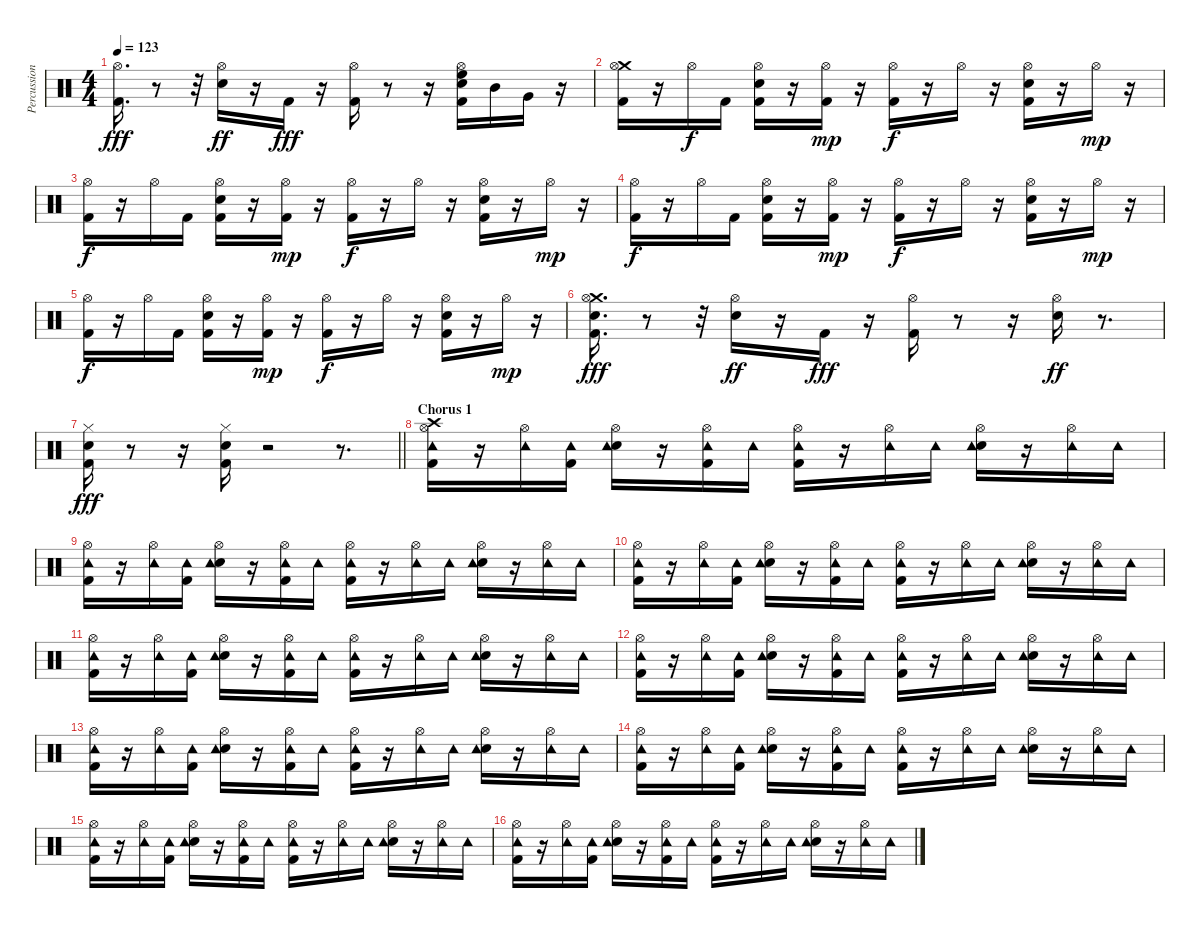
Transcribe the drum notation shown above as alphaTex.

\track ("Percussion: Liberty D'Vitto" "Percussion") {instrument percussion}
\staff {score}
\articulation defaults
\ts (4 4)
\tempo 123
\clef neutral
\ks c
("Kick (hit) 2" "Hi-Hat (open)").16{d dy fff} r.8 r.32 ("Snare (hit) 2" "Hi-Hat (open)").16{dy ff} r.16 "Kick (hit) 2".16{dy fff} r.16 ("Kick (hit) 2" "Hi-Hat (open)").16 r.8 r.16 ("Hi-Hat (open)" "Snare (hit) 2" "High Floor Tom (hit)" "Kick (hit) 2").16 "Mid Tom (hit)".16 "Very Low Tom (hit)".16 r.16 |
("Crash medium (hit)" "Hi-Hat (open)" "Kick (hit) 2").16 r.16 "Hi-Hat (open)".16{dy f} "Kick (hit) 2".16 ("Hi-Hat (open)" "Snare (hit) 2" "Kick (hit) 2").16 r.16 ("Hi-Hat (open)" "Kick (hit) 2").16{dy mp} r.16 ("Hi-Hat (open)" "Kick (hit) 2").16{dy f} r.16 "Hi-Hat (open)".16 r.16 ("Hi-Hat (open)" "Snare (hit) 2" "Kick (hit) 2").16 r.16 "Hi-Hat (open)".16{dy mp} r.16 |
("Hi-Hat (open)" "Kick (hit) 2").16{dy f} r.16 "Hi-Hat (open)".16 "Kick (hit) 2".16 ("Hi-Hat (open)" "Snare (hit) 2" "Kick (hit) 2").16 r.16 ("Hi-Hat (open)" "Kick (hit) 2").16{dy mp} r.16 ("Hi-Hat (open)" "Kick (hit) 2").16{dy f} r.16 "Hi-Hat (open)".16 r.16 ("Hi-Hat (open)" "Snare (hit) 2" "Kick (hit) 2").16 r.16 "Hi-Hat (open)".16{dy mp} r.16 |
("Hi-Hat (open)" "Kick (hit) 2").16{dy f} r.16 "Hi-Hat (open)".16 "Kick (hit) 2".16 ("Hi-Hat (open)" "Snare (hit) 2" "Kick (hit) 2").16 r.16 ("Hi-Hat (open)" "Kick (hit) 2").16{dy mp} r.16 ("Hi-Hat (open)" "Kick (hit) 2").16{dy f} r.16 "Hi-Hat (open)".16 r.16 ("Hi-Hat (open)" "Snare (hit) 2" "Kick (hit) 2").16 r.16 "Hi-Hat (open)".16{dy mp} r.16 |
("Hi-Hat (open)" "Kick (hit) 2").16{dy f} r.16 "Hi-Hat (open)".16 "Kick (hit) 2".16 ("Hi-Hat (open)" "Snare (hit) 2" "Kick (hit) 2").16 r.16 ("Hi-Hat (open)" "Kick (hit) 2").16{dy mp} r.16 ("Hi-Hat (open)" "Kick (hit) 2").16{dy f} r.16 "Hi-Hat (open)".16 r.16 ("Hi-Hat (open)" "Snare (hit) 2" "Kick (hit) 2").16 r.16 "Hi-Hat (open)".16{dy mp} r.16 |
("Crash medium (hit)" "Hi-Hat (open)" "Snare (hit) 2" "Kick (hit) 2").16{d dy fff} r.8 r.32 ("Snare (hit) 2" "Hi-Hat (open)").16{dy ff} r.16 "Kick (hit) 2".16{dy fff} r.16 ("Kick (hit) 2" "Hi-Hat (open)").16 r.8 r.16 ("Snare (hit) 2" "Hi-Hat (open)").16{dy ff} r.8{d} |
\barLineRight lightlight
("Hi-Hat (closed)" "Snare (hit) 2" "Kick (hit) 2").16{dy fff} r.8 r.16 ("Hi-Hat (closed)" "Snare (hit) 2" "Kick (hit) 2").16 r.2 r.8{d} |
\section ("" "Chorus 1")
("Crash high (hit)" "Hi-Hat (open)" "Tambourine (hit)" "Kick (hit) 2").16 r.16 ("Hi-Hat (open)" "Tambourine (hit)").16 ("Tambourine (hit)" "Kick (hit) 2").16 ("Hi-Hat (open)" "Snare (hit) 2" "Tambourine (hit)").16 r.16 ("Hi-Hat (open)" "Tambourine (hit)" "Kick (hit) 2").16 "Tambourine (hit)".16 ("Hi-Hat (open)" "Tambourine (hit)" "Kick (hit) 2").16 r.16 ("Hi-Hat (open)" "Tambourine (hit)").16 "Tambourine (hit)".16 ("Hi-Hat (open)" "Snare (hit) 2" "Tambourine (hit)").16 r.16 ("Hi-Hat (open)" "Tambourine (hit)").16 "Tambourine (hit)".16 |
("Hi-Hat (open)" "Tambourine (hit)" "Kick (hit) 2").16 r.16 ("Hi-Hat (open)" "Tambourine (hit)").16 ("Tambourine (hit)" "Kick (hit) 2").16 ("Hi-Hat (open)" "Snare (hit) 2" "Tambourine (hit)").16 r.16 ("Hi-Hat (open)" "Tambourine (hit)" "Kick (hit) 2").16 "Tambourine (hit)".16 ("Hi-Hat (open)" "Tambourine (hit)" "Kick (hit) 2").16 r.16 ("Hi-Hat (open)" "Tambourine (hit)").16 "Tambourine (hit)".16 ("Hi-Hat (open)" "Snare (hit) 2" "Tambourine (hit)").16 r.16 ("Hi-Hat (open)" "Tambourine (hit)").16 "Tambourine (hit)".16 |
("Hi-Hat (open)" "Tambourine (hit)" "Kick (hit) 2").16 r.16 ("Hi-Hat (open)" "Tambourine (hit)").16 ("Tambourine (hit)" "Kick (hit) 2").16 ("Hi-Hat (open)" "Snare (hit) 2" "Tambourine (hit)").16 r.16 ("Hi-Hat (open)" "Tambourine (hit)" "Kick (hit) 2").16 "Tambourine (hit)".16 ("Hi-Hat (open)" "Tambourine (hit)" "Kick (hit) 2").16 r.16 ("Hi-Hat (open)" "Tambourine (hit)").16 "Tambourine (hit)".16 ("Hi-Hat (open)" "Snare (hit) 2" "Tambourine (hit)").16 r.16 ("Hi-Hat (open)" "Tambourine (hit)").16 "Tambourine (hit)".16 |
("Hi-Hat (open)" "Tambourine (hit)" "Kick (hit) 2").16 r.16 ("Hi-Hat (open)" "Tambourine (hit)").16 ("Tambourine (hit)" "Kick (hit) 2").16 ("Hi-Hat (open)" "Snare (hit) 2" "Tambourine (hit)").16 r.16 ("Hi-Hat (open)" "Tambourine (hit)" "Kick (hit) 2").16 "Tambourine (hit)".16 ("Hi-Hat (open)" "Tambourine (hit)" "Kick (hit) 2").16 r.16 ("Hi-Hat (open)" "Tambourine (hit)").16 "Tambourine (hit)".16 ("Hi-Hat (open)" "Snare (hit) 2" "Tambourine (hit)").16 r.16 ("Hi-Hat (open)" "Tambourine (hit)").16 "Tambourine (hit)".16 |
("Hi-Hat (open)" "Tambourine (hit)" "Kick (hit) 2").16 r.16 ("Hi-Hat (open)" "Tambourine (hit)").16 ("Tambourine (hit)" "Kick (hit) 2").16 ("Hi-Hat (open)" "Snare (hit) 2" "Tambourine (hit)").16 r.16 ("Hi-Hat (open)" "Tambourine (hit)" "Kick (hit) 2").16 "Tambourine (hit)".16 ("Hi-Hat (open)" "Tambourine (hit)" "Kick (hit) 2").16 r.16 ("Hi-Hat (open)" "Tambourine (hit)").16 "Tambourine (hit)".16 ("Hi-Hat (open)" "Snare (hit) 2" "Tambourine (hit)").16 r.16 ("Hi-Hat (open)" "Tambourine (hit)").16 "Tambourine (hit)".16 |
("Hi-Hat (open)" "Tambourine (hit)" "Kick (hit) 2").16 r.16 ("Hi-Hat (open)" "Tambourine (hit)").16 ("Tambourine (hit)" "Kick (hit) 2").16 ("Hi-Hat (open)" "Snare (hit) 2" "Tambourine (hit)").16 r.16 ("Hi-Hat (open)" "Tambourine (hit)" "Kick (hit) 2").16 "Tambourine (hit)".16 ("Hi-Hat (open)" "Tambourine (hit)" "Kick (hit) 2").16 r.16 ("Hi-Hat (open)" "Tambourine (hit)").16 "Tambourine (hit)".16 ("Hi-Hat (open)" "Snare (hit) 2" "Tambourine (hit)").16 r.16 ("Hi-Hat (open)" "Tambourine (hit)").16 "Tambourine (hit)".16 |
("Hi-Hat (open)" "Tambourine (hit)" "Kick (hit) 2").16 r.16 ("Hi-Hat (open)" "Tambourine (hit)").16 ("Tambourine (hit)" "Kick (hit) 2").16 ("Hi-Hat (open)" "Snare (hit) 2" "Tambourine (hit)").16 r.16 ("Hi-Hat (open)" "Tambourine (hit)" "Kick (hit) 2").16 "Tambourine (hit)".16 ("Hi-Hat (open)" "Tambourine (hit)" "Kick (hit) 2").16 r.16 ("Hi-Hat (open)" "Tambourine (hit)").16 "Tambourine (hit)".16 ("Hi-Hat (open)" "Snare (hit) 2" "Tambourine (hit)").16 r.16 ("Hi-Hat (open)" "Tambourine (hit)").16 "Tambourine (hit)".16 |
("Hi-Hat (open)" "Tambourine (hit)" "Kick (hit) 2").16 r.16 ("Hi-Hat (open)" "Tambourine (hit)").16 ("Tambourine (hit)" "Kick (hit) 2").16 ("Hi-Hat (open)" "Snare (hit) 2" "Tambourine (hit)").16 r.16 ("Hi-Hat (open)" "Tambourine (hit)" "Kick (hit) 2").16 "Tambourine (hit)".16 ("Hi-Hat (open)" "Tambourine (hit)" "Kick (hit) 2").16 r.16 ("Hi-Hat (open)" "Tambourine (hit)").16 "Tambourine (hit)".16 ("Hi-Hat (open)" "Snare (hit) 2" "Tambourine (hit)").16 r.16 ("Hi-Hat (open)" "Tambourine (hit)").16 "Tambourine (hit)".16 |
("Hi-Hat (open)" "Tambourine (hit)" "Kick (hit) 2").16 r.16 ("Hi-Hat (open)" "Tambourine (hit)").16 ("Tambourine (hit)" "Kick (hit) 2").16 ("Hi-Hat (open)" "Snare (hit) 2" "Tambourine (hit)").16 r.16 ("Hi-Hat (open)" "Tambourine (hit)" "Kick (hit) 2").16 "Tambourine (hit)".16 ("Hi-Hat (open)" "Tambourine (hit)" "Kick (hit) 2").16 r.16 ("Hi-Hat (open)" "Tambourine (hit)").16 "Tambourine (hit)".16 ("Hi-Hat (open)" "Snare (hit) 2" "Tambourine (hit)").16 r.16 ("Hi-Hat (open)" "Tambourine (hit)").16 "Tambourine (hit)".16
